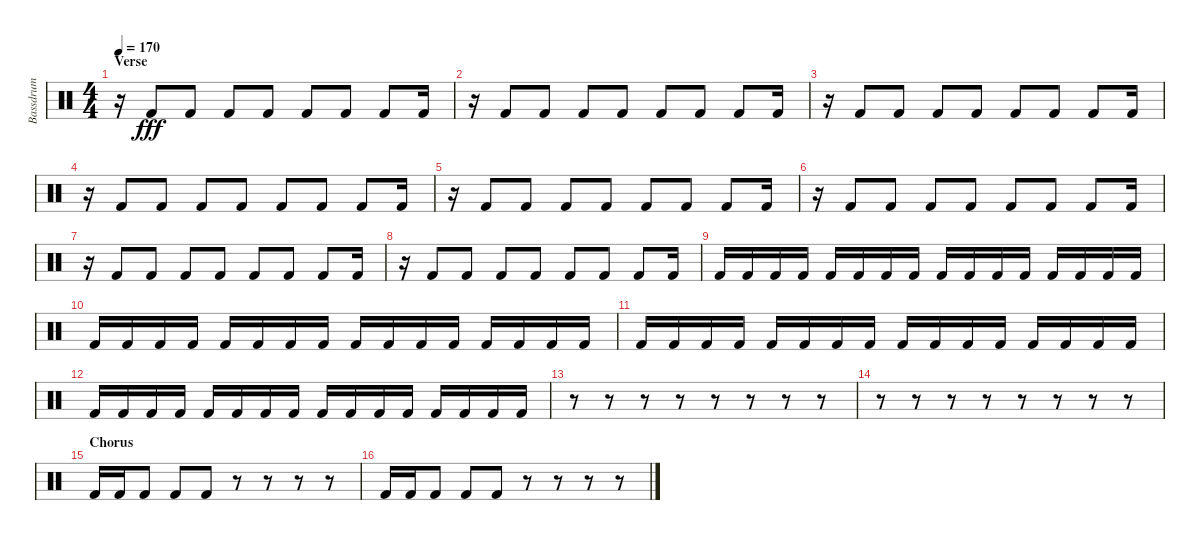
\track ("Bassdrum" "Bassdrum") {instrument percussion}
\staff {score}
\articulation defaults
\ts (4 4)
\section ("" "Verse")
\tempo 170
\clef neutral
\ks c
r.16{dy fff} "Kick (hit) 2".8 "Kick (hit) 2".8 "Kick (hit) 2".8 "Kick (hit) 2".8 "Kick (hit) 2".8 "Kick (hit) 2".8 "Kick (hit) 2".8 "Kick (hit) 2".16 |
r.16 "Kick (hit) 2".8 "Kick (hit) 2".8 "Kick (hit) 2".8 "Kick (hit) 2".8 "Kick (hit) 2".8 "Kick (hit) 2".8 "Kick (hit) 2".8 "Kick (hit) 2".16 |
r.16 "Kick (hit) 2".8 "Kick (hit) 2".8 "Kick (hit) 2".8 "Kick (hit) 2".8 "Kick (hit) 2".8 "Kick (hit) 2".8 "Kick (hit) 2".8 "Kick (hit) 2".16 |
r.16 "Kick (hit) 2".8 "Kick (hit) 2".8 "Kick (hit) 2".8 "Kick (hit) 2".8 "Kick (hit) 2".8 "Kick (hit) 2".8 "Kick (hit) 2".8 "Kick (hit) 2".16 |
r.16 "Kick (hit) 2".8 "Kick (hit) 2".8 "Kick (hit) 2".8 "Kick (hit) 2".8 "Kick (hit) 2".8 "Kick (hit) 2".8 "Kick (hit) 2".8 "Kick (hit) 2".16 |
r.16 "Kick (hit) 2".8 "Kick (hit) 2".8 "Kick (hit) 2".8 "Kick (hit) 2".8 "Kick (hit) 2".8 "Kick (hit) 2".8 "Kick (hit) 2".8 "Kick (hit) 2".16 |
r.16 "Kick (hit) 2".8 "Kick (hit) 2".8 "Kick (hit) 2".8 "Kick (hit) 2".8 "Kick (hit) 2".8 "Kick (hit) 2".8 "Kick (hit) 2".8 "Kick (hit) 2".16 |
r.16 "Kick (hit) 2".8 "Kick (hit) 2".8 "Kick (hit) 2".8 "Kick (hit) 2".8 "Kick (hit) 2".8 "Kick (hit) 2".8 "Kick (hit) 2".8 "Kick (hit) 2".16 |
"Kick (hit) 2".16 "Kick (hit) 2".16 "Kick (hit) 2".16 "Kick (hit) 2".16 "Kick (hit) 2".16 "Kick (hit) 2".16 "Kick (hit) 2".16 "Kick (hit) 2".16 "Kick (hit) 2".16 "Kick (hit) 2".16 "Kick (hit) 2".16 "Kick (hit) 2".16 "Kick (hit) 2".16 "Kick (hit) 2".16 "Kick (hit) 2".16 "Kick (hit) 2".16 |
"Kick (hit) 2".16 "Kick (hit) 2".16 "Kick (hit) 2".16 "Kick (hit) 2".16 "Kick (hit) 2".16 "Kick (hit) 2".16 "Kick (hit) 2".16 "Kick (hit) 2".16 "Kick (hit) 2".16 "Kick (hit) 2".16 "Kick (hit) 2".16 "Kick (hit) 2".16 "Kick (hit) 2".16 "Kick (hit) 2".16 "Kick (hit) 2".16 "Kick (hit) 2".16 |
"Kick (hit) 2".16 "Kick (hit) 2".16 "Kick (hit) 2".16 "Kick (hit) 2".16 "Kick (hit) 2".16 "Kick (hit) 2".16 "Kick (hit) 2".16 "Kick (hit) 2".16 "Kick (hit) 2".16 "Kick (hit) 2".16 "Kick (hit) 2".16 "Kick (hit) 2".16 "Kick (hit) 2".16 "Kick (hit) 2".16 "Kick (hit) 2".16 "Kick (hit) 2".16 |
"Kick (hit) 2".16 "Kick (hit) 2".16 "Kick (hit) 2".16 "Kick (hit) 2".16 "Kick (hit) 2".16 "Kick (hit) 2".16 "Kick (hit) 2".16 "Kick (hit) 2".16 "Kick (hit) 2".16 "Kick (hit) 2".16 "Kick (hit) 2".16 "Kick (hit) 2".16 "Kick (hit) 2".16 "Kick (hit) 2".16 "Kick (hit) 2".16 "Kick (hit) 2".16 |
r.8 r.8 r.8 r.8 r.8 r.8 r.8 r.8 |
r.8 r.8 r.8 r.8 r.8 r.8 r.8 r.8 |
\section ("" "Chorus")
"Kick (hit) 2".16 "Kick (hit) 2".16 "Kick (hit) 2".8 "Kick (hit) 2".8 "Kick (hit) 2".8 r.8 r.8 r.8 r.8 |
"Kick (hit) 2".16 "Kick (hit) 2".16 "Kick (hit) 2".8 "Kick (hit) 2".8 "Kick (hit) 2".8 r.8 r.8 r.8 r.8
